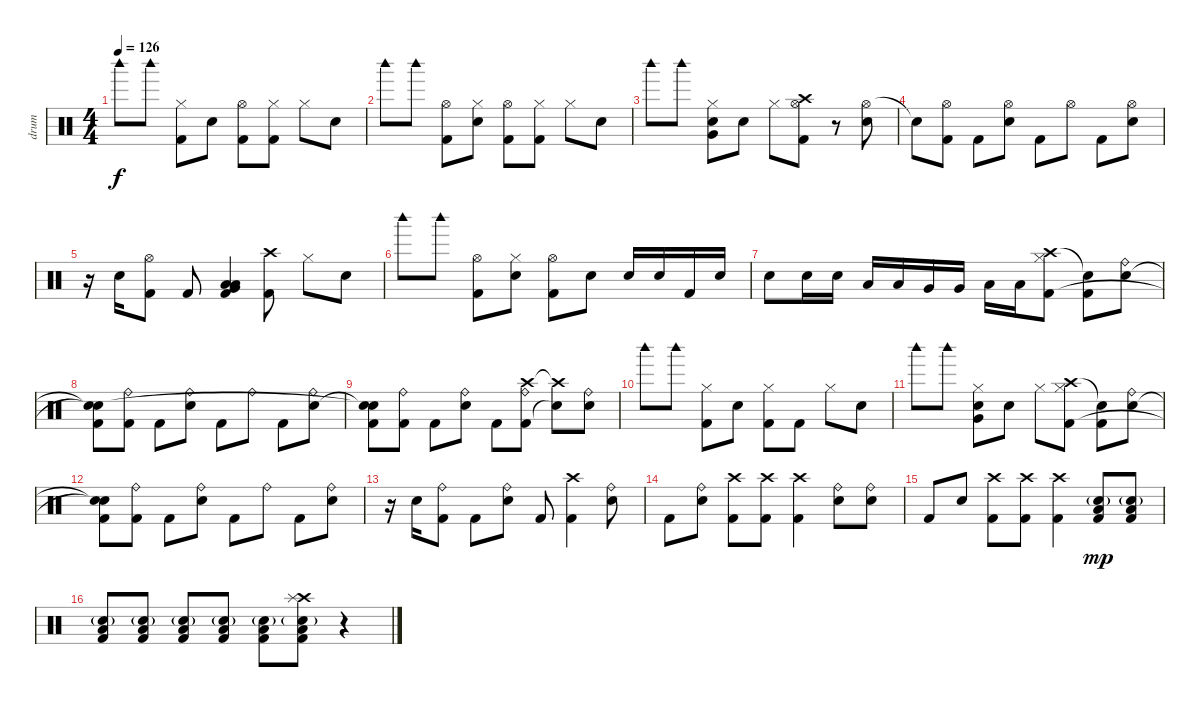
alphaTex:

\track ("drum" "drum") {instrument percussion}
\staff {score}
\articulation defaults
\ts (4 4)
\tempo 126
\clef neutral
\ks c "Woodblock high (hit)".8{dy f} "Woodblock high (hit)".8
("Hi-Hat (closed)" "Kick (hit) 2").8 "Snare (hit) 2".8 ("Hi-Hat (open)" "Kick (hit) 2").8 ("Hi-Hat (closed)" "Kick (hit) 2").8 "Hi-Hat (closed)".8 "Snare (hit) 2".8 |
"Woodblock high (hit)".8 "Woodblock high (hit)".8 ("Hi-Hat (open)" "Kick (hit) 2").8 ("Hi-Hat (closed)" "Snare (hit) 2").8 ("Hi-Hat (open)" "Kick (hit) 2").8 ("Hi-Hat (closed)" "Kick (hit) 2").8 "Hi-Hat (closed)".8 "Snare (hit) 2".8 |
"Woodblock high (hit)".8 "Woodblock high (hit)".8 ("Hi-Hat (closed)" "Snare (hit) 2" "Very Low Tom (hit)").8 "Snare (hit) 2".8 "Hi-Hat (closed)".8 ("Crash high (hit)" "Hi-Hat (open)" "Kick (hit) 2").8 r.8 ("Hi-Hat (open)" "Snare (hit) 2").8 |
"Snare (hit)"{t}.8 ("Hi-Hat (open)" "Kick (hit) 2").8 "Kick (hit) 2".8 ("Hi-Hat (open)" "Snare (hit) 2").8 "Kick (hit) 2".8 "Hi-Hat (open)".8 "Kick (hit) 2".8 ("Hi-Hat (open)" "Snare (hit) 2").8 |
r.16 "Snare (hit) 2".16 ("Hi-Hat (open)" "Kick (hit) 2").8 "Kick (hit) 2".8 ("Very Low Tom (hit)" "Low Tom (hit)" "Low Floor Tom (hit)" "Kick (hit) 2").4 ("Crash high (hit)" "Kick (hit) 2").8 "Hi-Hat (closed)".8 "Snare (hit) 2".8 |
"Woodblock high (hit)".8 "Woodblock high (hit)".8 ("Hi-Hat (open)" "Kick (hit) 2").8 ("Hi-Hat (closed)" "Snare (hit) 2").8 ("Hi-Hat (open)" "Kick (hit) 2").8 "Snare (hit) 2".8 "Snare (hit) 2".16 "Snare (hit) 2".16 "Kick (hit) 2".16 "Snare (hit) 2".16 |
"Snare (hit) 2".8 "Snare (hit) 2".16 "Snare (hit) 2".16 "Low Tom (hit)".16 "Low Tom (hit)".16 "Very Low Tom (hit)".16 "Very Low Tom (hit)".16 "Low Floor Tom (hit)".16 "Low Floor Tom (hit)".16 ("Crash high (hit)" "Hi-Hat (closed)" "Kick (hit) 2").8 ("Snare (hit)"{t} "Kick (hit) 2").8 ("Snare (hit) 2" "Ride (bell)").8 |
("Snare (hit)"{t} "Kick (hit) 2" "Snare (hit)"{t}).8 ("Kick (hit) 2" "Ride (bell)").8 "Kick (hit) 2".8 ("Snare (hit) 2" "Ride (bell)").8 "Kick (hit) 2".8 "Ride (bell)".8 "Kick (hit) 2".8 ("Snare (hit) 2" "Ride (bell)").8 |
("Snare (hit)"{t} "Kick (hit) 2" "Snare (hit)"{t}).8 ("Kick (hit) 2" "Ride (bell)").8 "Kick (hit) 2".8 ("Snare (hit) 2" "Ride (bell)").8 "Kick (hit) 2".8 ("Crash high (hit)" "Kick (hit) 2" "Ride (bell)").8 ("Crash high (hit)"{t} "Snare (hit)"{t}).8 ("Snare (hit) 2" "Ride (bell)").8 |
"Woodblock high (hit)".8 "Woodblock high (hit)".8 ("Hi-Hat (closed)" "Kick (hit) 2").8 "Snare (hit) 2".8 ("Hi-Hat (closed)" "Kick (hit) 2").8 "Kick (hit) 2".8 "Hi-Hat (closed)".8 "Snare (hit) 2".8 |
"Woodblock high (hit)".8 "Woodblock high (hit)".8 ("Hi-Hat (closed)" "Snare (hit) 2" "Very Low Tom (hit)").8 "Snare (hit) 2".8 "Hi-Hat (closed)".8 ("Crash high (hit)" "Hi-Hat (closed)" "Kick (hit) 2").8 ("Snare (hit)"{t} "Kick (hit) 2").8 ("Snare (hit) 2" "Ride (bell)").8 |
("Snare (hit)"{t} "Kick (hit) 2" "Snare (hit)"{t}).8 ("Kick (hit) 2" "Ride (bell)").8 "Kick (hit) 2".8 ("Snare (hit) 2" "Ride (bell)").8 "Kick (hit) 2".8 "Ride (bell)".8 "Kick (hit) 2".8 ("Snare (hit) 2" "Ride (bell)").8 |
r.16 "Snare (hit) 2".16 ("Kick (hit) 2" "Ride (bell)").8 "Kick (hit) 2".8 ("Snare (hit) 2" "Ride (bell)").8 "Kick (hit) 2".8 ("Crash high (hit)" "Kick (hit) 2").4 ("Snare (hit) 2" "Ride (bell)").8 |
"Kick (hit) 2".8 ("Snare (hit) 2" "Ride (bell)").8 ("Crash high (hit)" "Kick (hit) 2").8 ("Crash high (hit)" "Kick (hit) 2").8 ("Crash high (hit)" "Kick (hit) 2").4 ("Snare (hit) 2" "Ride (bell)").8 ("Snare (hit) 2" "Ride (bell)").8 |
"Kick (hit) 2".8 "Snare (hit) 2".8 ("Crash high (hit)" "Kick (hit) 2").8 ("Crash high (hit)" "Kick (hit) 2").8 ("Crash high (hit)" "Kick (hit) 2").4 ("Low Floor Tom (hit)" "Snare (hit) 2"{g} "Kick (hit) 2").8{dy mp} ("Low Floor Tom (hit)" "Snare (hit) 2"{g} "Kick (hit) 2").8 |
("Low Floor Tom (hit)" "Snare (hit) 2"{g} "Kick (hit) 2").8 ("Low Floor Tom (hit)" "Snare (hit) 2"{g} "Kick (hit) 2").8 ("Low Floor Tom (hit)" "Snare (hit) 2"{g} "Kick (hit) 2").8 ("Low Floor Tom (hit)" "Snare (hit) 2"{g} "Kick (hit) 2").8 ("Low Floor Tom (hit)" "Snare (hit) 2"{g} "Kick (hit) 2").8 ("Crash high (hit)" "Splash (hit)" "Low Floor Tom (hit)" "Snare (hit) 2"{g} "Kick (hit) 2").8 r.4
